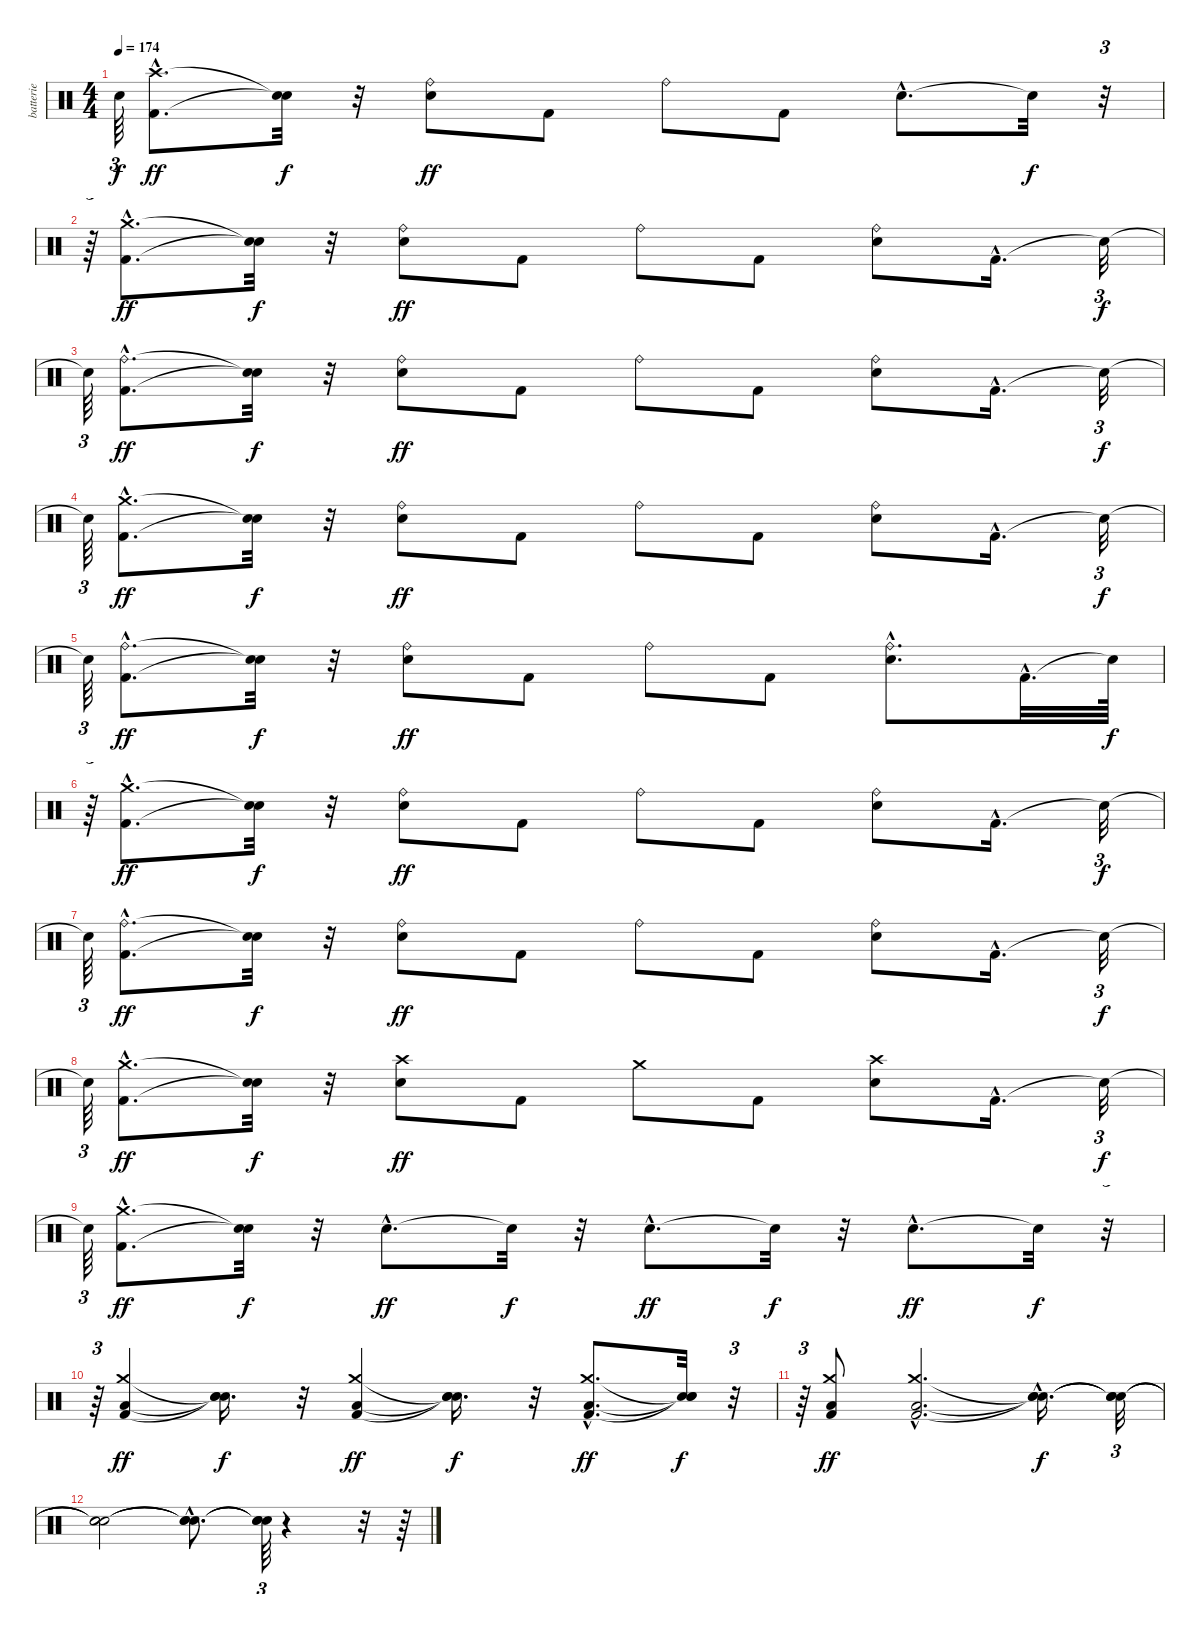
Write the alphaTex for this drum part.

\track ("batterie" "batterie") {instrument percussion}
\staff {score}
\articulation defaults
\ts (4 4)
\tempo 174
\clef neutral
\ks c "Snare (hit)"{t}.64{tu (3 2) dy f}
("Kick (hit) 2"{hac} "Crash high (hit)"{hac}).8{d dy ff} ("Snare (hit)"{t} "Snare (hit)"{t}).32{dy f} r.32 ("Electric Snare (hit)" "Ride (bell)").8{dy ff} "Kick (hit) 2".8 "Ride (bell)".8 "Kick (hit) 2".8 "Electric Snare (hit)"{hac}.8{d} "Snare (hit)"{t}.32{dy f} r.32{tu (3 2)} |
r.64{tu (3 2)} ("Kick (hit) 2"{hac} "Crash medium (hit)"{hac}).8{d dy ff} ("Snare (hit)"{t} "Snare (hit)"{t}).32{dy f} r.32 ("Electric Snare (hit)" "Ride (bell)").8{dy ff} "Kick (hit) 2".8 "Ride (bell)".8 "Kick (hit) 2".8 ("Electric Snare (hit)" "Ride (bell)").8 "Kick (hit) 2"{hac}.16{d} "Snare (hit)"{t}.32{tu (3 2) dy f} |
"Snare (hit)"{t}.64{tu (3 2)} ("Kick (hit) 2"{hac} "Ride (bell)"{hac}).8{d dy ff} ("Snare (hit)"{t} "Snare (hit)"{t}).32{dy f} r.32 ("Electric Snare (hit)" "Ride (bell)").8{dy ff} "Kick (hit) 2".8 "Ride (bell)".8 "Kick (hit) 2".8 ("Electric Snare (hit)" "Ride (bell)").8 "Kick (hit) 2"{hac}.16{d} "Snare (hit)"{t}.32{tu (3 2) dy f} |
"Snare (hit)"{t}.64{tu (3 2)} ("Kick (hit) 2"{hac} "Crash medium (hit)"{hac}).8{d dy ff} ("Snare (hit)"{t} "Snare (hit)"{t}).32{dy f} r.32 ("Electric Snare (hit)" "Ride (bell)").8{dy ff} "Kick (hit) 2".8 "Ride (bell)".8 "Kick (hit) 2".8 ("Electric Snare (hit)" "Ride (bell)").8 "Kick (hit) 2"{hac}.16{d} "Snare (hit)"{t}.32{tu (3 2) dy f} |
"Snare (hit)"{t}.64{tu (3 2)} ("Kick (hit) 2"{hac} "Ride (bell)"{hac}).8{d dy ff} ("Snare (hit)"{t} "Snare (hit)"{t}).32{dy f} r.32 ("Electric Snare (hit)" "Ride (bell)").8{dy ff} "Kick (hit) 2".8 "Ride (bell)".8 "Kick (hit) 2".8 ("Electric Snare (hit)"{hac} "Ride (bell)"{hac}).8{d} "Kick (hit) 2"{hac}.32{d} "Snare (hit)"{t}.64{dy f} |
r.64{tu (3 2)} ("Kick (hit) 2"{hac} "Crash medium (hit)"{hac}).8{d dy ff} ("Snare (hit)"{t} "Snare (hit)"{t}).32{dy f} r.32 ("Electric Snare (hit)" "Ride (bell)").8{dy ff} "Kick (hit) 2".8 "Ride (bell)".8 "Kick (hit) 2".8 ("Electric Snare (hit)" "Ride (bell)").8 "Kick (hit) 2"{hac}.16{d} "Snare (hit)"{t}.32{tu (3 2) dy f} |
"Snare (hit)"{t}.64{tu (3 2)} ("Kick (hit) 2"{hac} "Ride (bell)"{hac}).8{d dy ff} ("Snare (hit)"{t} "Snare (hit)"{t}).32{dy f} r.32 ("Electric Snare (hit)" "Ride (bell)").8{dy ff} "Kick (hit) 2".8 "Ride (bell)".8 "Kick (hit) 2".8 ("Electric Snare (hit)" "Ride (bell)").8 "Kick (hit) 2"{hac}.16{d} "Snare (hit)"{t}.32{tu (3 2) dy f} |
"Snare (hit)"{t}.64{tu (3 2)} ("Kick (hit) 2"{hac} "Crash medium (hit)"{hac}).8{d dy ff} ("Snare (hit)"{t} "Snare (hit)"{t}).32{dy f} r.32 ("Electric Snare (hit)" "Crash high (hit)").8{dy ff} "Kick (hit) 2".8 "Crash medium (hit)".8 "Kick (hit) 2".8 ("Electric Snare (hit)" "Crash high (hit)").8 "Kick (hit) 2"{hac}.16{d} "Snare (hit)"{t}.32{tu (3 2) dy f} |
"Snare (hit)"{t}.64{tu (3 2)} ("Kick (hit) 2"{hac} "Crash medium (hit)"{hac}).8{d dy ff} ("Snare (hit)"{t} "Snare (hit)"{t}).32{dy f} r.32 "Electric Snare (hit)"{hac}.8{d dy ff} "Snare (hit)"{t}.32{dy f} r.32 "Electric Snare (hit)"{hac}.8{d dy ff} "Snare (hit)"{t}.32{dy f} r.32 "Electric Snare (hit)"{hac}.8{d dy ff} "Snare (hit)"{t}.32{dy f} r.32{tu (3 2)} |
r.64{tu (3 2)} ("Kick (hit) 2" "Low Floor Tom (hit)" "Crash medium (hit)").4{dy ff} ("Snare (hit)"{t} "Snare (hit)"{t} "Snare (hit)"{t}).16{d dy f} r.32 ("Kick (hit) 2" "Low Floor Tom (hit)" "Crash medium (hit)").4{dy ff} ("Snare (hit)"{t} "Snare (hit)"{t} "Snare (hit)"{t}).16{d dy f} r.32 ("Kick (hit) 2"{hac} "Low Floor Tom (hit)"{hac} "Crash medium (hit)"{hac}).8{d dy ff} ("Snare (hit)"{t} "Snare (hit)"{t} "Snare (hit)"{t}).32{dy f} r.32{tu (3 2)} |
r.64{tu (3 2)} ("Kick (hit) 2" "Low Floor Tom (hit)" "Crash medium (hit)").8{dy ff} ("Kick (hit) 2"{hac} "Low Floor Tom (hit)"{hac} "Crash medium (hit)"{hac}).2{d} ("Snare (hit)"{hac t} "Snare (hit)"{hac t} "Snare (hit)"{hac t}).16{d dy f} ("Snare (hit)"{t} "Snare (hit)"{t} "Snare (hit)"{t}).32{tu (3 2)} |
("Snare (hit)"{t} "Snare (hit)"{t} "Snare (hit)"{t}).2 ("Snare (hit)"{hac t} "Snare (hit)"{hac t} "Snare (hit)"{hac t}).8{d} ("Snare (hit)"{t} "Snare (hit)"{t} "Snare (hit)"{t}).64{tu (3 2)} r.4 r.32 r.64
